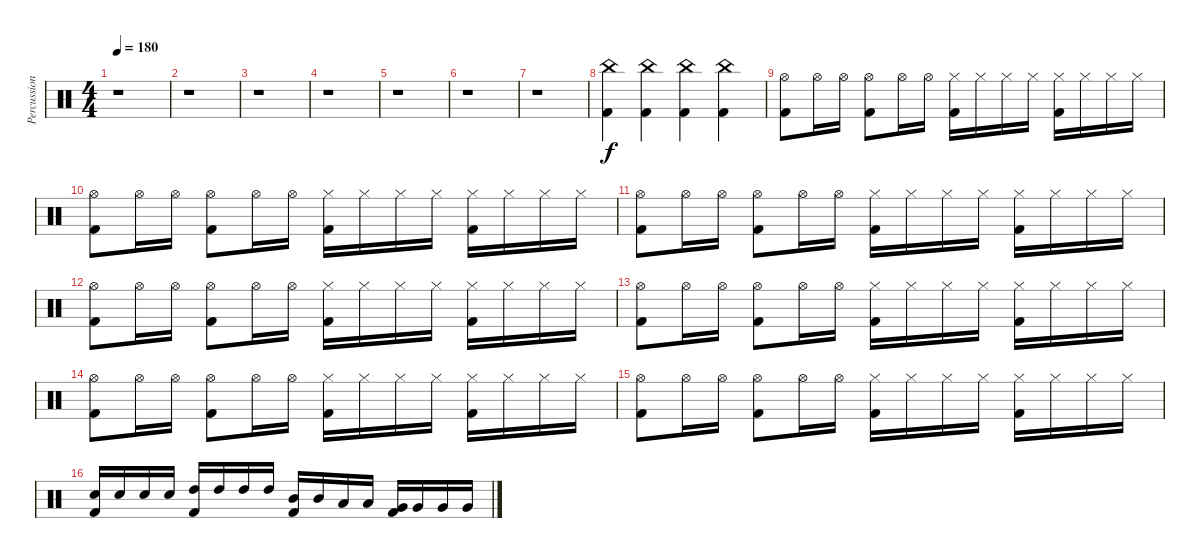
\track ("Percussion" "Percussion") {instrument percussion}
\staff {score}
\articulation defaults
\ts (4 4)
\tempo 180
\clef neutral
\ks c
r.1{dy f} |
r.1 |
r.1 |
r.1 |
r.1 |
r.1 |
r.1 |
("China (hit)" "Kick (hit) 2").4 ("China (hit)" "Kick (hit) 2").4 ("China (hit)" "Kick (hit) 2").4 ("China (hit)" "Kick (hit) 2").4 |
("Kick (hit) 2" "Hi-Hat (open)").8 "Hi-Hat (open)".16 "Hi-Hat (open)".16 ("Kick (hit) 2" "Hi-Hat (open)").8 "Hi-Hat (open)".16 "Hi-Hat (open)".16 ("Kick (hit) 2" "Hi-Hat (closed)").16 "Hi-Hat (closed)".16 "Hi-Hat (closed)".16 "Hi-Hat (closed)".16 ("Kick (hit) 2" "Hi-Hat (closed)").16 "Hi-Hat (closed)".16 "Hi-Hat (closed)".16 "Hi-Hat (closed)".16 |
("Kick (hit) 2" "Hi-Hat (open)").8 "Hi-Hat (open)".16 "Hi-Hat (open)".16 ("Kick (hit) 2" "Hi-Hat (open)").8 "Hi-Hat (open)".16 "Hi-Hat (open)".16 ("Kick (hit) 2" "Hi-Hat (closed)").16 "Hi-Hat (closed)".16 "Hi-Hat (closed)".16 "Hi-Hat (closed)".16 ("Kick (hit) 2" "Hi-Hat (closed)").16 "Hi-Hat (closed)".16 "Hi-Hat (closed)".16 "Hi-Hat (closed)".16 |
("Kick (hit) 2" "Hi-Hat (open)").8 "Hi-Hat (open)".16 "Hi-Hat (open)".16 ("Kick (hit) 2" "Hi-Hat (open)").8 "Hi-Hat (open)".16 "Hi-Hat (open)".16 ("Kick (hit) 2" "Hi-Hat (closed)").16 "Hi-Hat (closed)".16 "Hi-Hat (closed)".16 "Hi-Hat (closed)".16 ("Kick (hit) 2" "Hi-Hat (closed)").16 "Hi-Hat (closed)".16 "Hi-Hat (closed)".16 "Hi-Hat (closed)".16 |
("Kick (hit) 2" "Hi-Hat (open)").8 "Hi-Hat (open)".16 "Hi-Hat (open)".16 ("Kick (hit) 2" "Hi-Hat (open)").8 "Hi-Hat (open)".16 "Hi-Hat (open)".16 ("Kick (hit) 2" "Hi-Hat (closed)").16 "Hi-Hat (closed)".16 "Hi-Hat (closed)".16 "Hi-Hat (closed)".16 ("Kick (hit) 2" "Hi-Hat (closed)").16 "Hi-Hat (closed)".16 "Hi-Hat (closed)".16 "Hi-Hat (closed)".16 |
("Kick (hit) 2" "Hi-Hat (open)").8 "Hi-Hat (open)".16 "Hi-Hat (open)".16 ("Kick (hit) 2" "Hi-Hat (open)").8 "Hi-Hat (open)".16 "Hi-Hat (open)".16 ("Kick (hit) 2" "Hi-Hat (closed)").16 "Hi-Hat (closed)".16 "Hi-Hat (closed)".16 "Hi-Hat (closed)".16 ("Kick (hit) 2" "Hi-Hat (closed)").16 "Hi-Hat (closed)".16 "Hi-Hat (closed)".16 "Hi-Hat (closed)".16 |
("Kick (hit) 2" "Hi-Hat (open)").8 "Hi-Hat (open)".16 "Hi-Hat (open)".16 ("Kick (hit) 2" "Hi-Hat (open)").8 "Hi-Hat (open)".16 "Hi-Hat (open)".16 ("Kick (hit) 2" "Hi-Hat (closed)").16 "Hi-Hat (closed)".16 "Hi-Hat (closed)".16 "Hi-Hat (closed)".16 ("Kick (hit) 2" "Hi-Hat (closed)").16 "Hi-Hat (closed)".16 "Hi-Hat (closed)".16 "Hi-Hat (closed)".16 |
("Kick (hit) 2" "Hi-Hat (open)").8 "Hi-Hat (open)".16 "Hi-Hat (open)".16 ("Kick (hit) 2" "Hi-Hat (open)").8 "Hi-Hat (open)".16 "Hi-Hat (open)".16 ("Kick (hit) 2" "Hi-Hat (closed)").16 "Hi-Hat (closed)".16 "Hi-Hat (closed)".16 "Hi-Hat (closed)".16 ("Kick (hit) 2" "Hi-Hat (closed)").16 "Hi-Hat (closed)".16 "Hi-Hat (closed)".16 "Hi-Hat (closed)".16 |
("Snare (hit) 2" "Kick (hit) 2").16 "Snare (hit) 2".16 "Snare (hit) 2".16 "Snare (hit) 2".16 ("High Tom (hit)" "Kick (hit) 2").16 "High Tom (hit)".16 "High Tom (hit)".16 "High Tom (hit)".16 ("Mid Tom (hit)" "Kick (hit) 2").16 "Mid Tom (hit)".16 "Low Tom (hit)".16 "Low Tom (hit)".16 ("Very Low Tom (hit)" "Kick (hit) 2").16 "Very Low Tom (hit)".16 "Very Low Tom (hit)".16 "Very Low Tom (hit)".16
